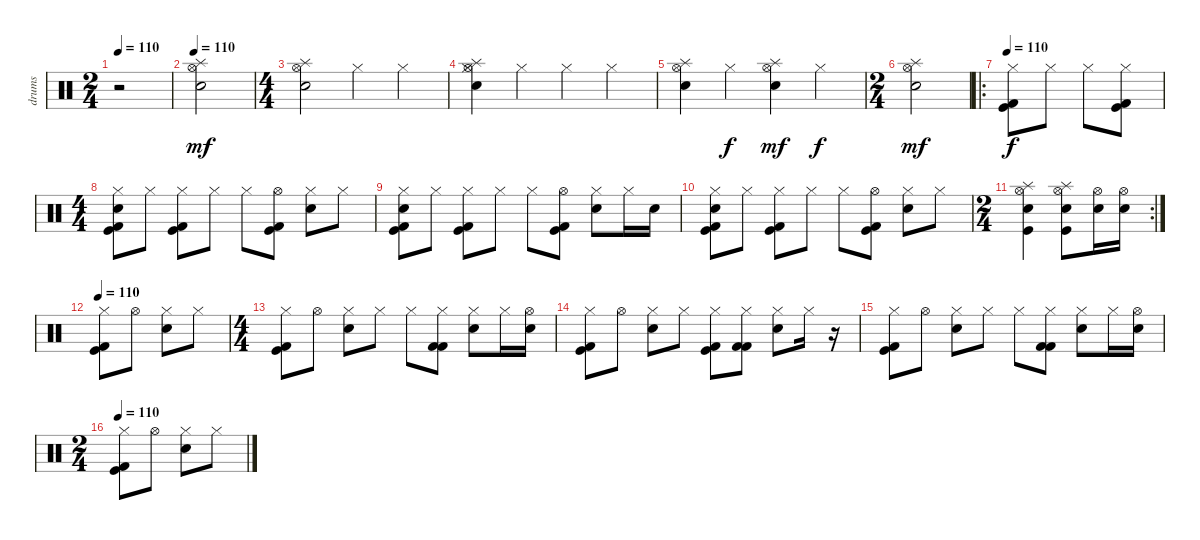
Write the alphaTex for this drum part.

\track ("drums" "drums") {instrument percussion}
\staff {score}
\articulation defaults
\ts (2 4)
\tempo 110
\clef neutral
\ks c
r.2{dy f} |
\tempo 110
("Splash (hit)" "Hi-Hat (open)" "Electric Snare (hit)").2{dy mf} |
\ts (4 4)
("Splash (hit)" "Hi-Hat (open)" "Electric Snare (hit)").2 "Hi-Hat (closed)".4 "Hi-Hat (closed)".4 |
("Hi-Hat (closed)" "Splash (hit)" "Hi-Hat (open)" "Electric Snare (hit)").4 "Hi-Hat (closed)".4 "Hi-Hat (closed)".4 "Hi-Hat (closed)".4 |
("Splash (hit)" "Hi-Hat (open)" "Electric Snare (hit)").4 "Hi-Hat (closed)".4{dy f} ("Splash (hit)" "Hi-Hat (open)" "Electric Snare (hit)").4{dy mf} "Hi-Hat (closed)".4{dy f} |
\ts (2 4)
("Splash (hit)" "Hi-Hat (open)" "Electric Snare (hit)").2{dy mf} |
\ro
\tempo 110
("Hi-Hat (closed)" "Kick (hit) 2" "Kick (hit)").8{dy f} "Hi-Hat (closed)".8 "Hi-Hat (closed)".8 ("Hi-Hat (closed)" "Kick (hit) 2" "Kick (hit)").8 |
\ts (4 4)
("Hi-Hat (closed)" "Electric Snare (hit)" "Kick (hit) 2" "Kick (hit)").8 "Hi-Hat (closed)".8 ("Hi-Hat (closed)" "Kick (hit) 2" "Kick (hit)").8 "Hi-Hat (closed)".8 "Hi-Hat (closed)".8 ("Hi-Hat (open)" "Kick (hit) 2" "Kick (hit)").8 ("Hi-Hat (closed)" "Electric Snare (hit)").8 "Hi-Hat (closed)".8 |
("Hi-Hat (closed)" "Electric Snare (hit)" "Kick (hit) 2" "Kick (hit)").8 "Hi-Hat (closed)".8 ("Hi-Hat (closed)" "Kick (hit) 2" "Kick (hit)").8 "Hi-Hat (closed)".8 "Hi-Hat (closed)".8 ("Hi-Hat (open)" "Kick (hit) 2" "Kick (hit)").8 ("Hi-Hat (closed)" "Electric Snare (hit)").8 "Hi-Hat (closed)".16 "Electric Snare (hit)".16 |
("Hi-Hat (closed)" "Electric Snare (hit)" "Kick (hit) 2" "Kick (hit)").8 "Hi-Hat (closed)".8 ("Hi-Hat (closed)" "Kick (hit) 2" "Kick (hit)").8 "Hi-Hat (closed)".8 "Hi-Hat (closed)".8 ("Hi-Hat (open)" "Kick (hit) 2" "Kick (hit)").8 ("Hi-Hat (closed)" "Electric Snare (hit)").8 "Hi-Hat (closed)".8 |
\rc 2
\ts (2 4)
("Electric Snare (hit)" "Hi-Hat (open)" "Splash (hit)" "Kick (hit)").4 ("Electric Snare (hit)" "Hi-Hat (open)" "Splash (hit)" "Kick (hit)").8 ("Electric Snare (hit)" "Hi-Hat (open)").16 ("Electric Snare (hit)" "Hi-Hat (open)").16 |
\tempo 110
("Hi-Hat (closed)" "Kick (hit) 2" "Kick (hit)").8 "Hi-Hat (open)".8 ("Hi-Hat (closed)" "Electric Snare (hit)").8 "Hi-Hat (closed)".8 |
\ts (4 4)
("Hi-Hat (closed)" "Kick (hit) 2" "Kick (hit)").8 "Hi-Hat (open)".8 ("Hi-Hat (closed)" "Electric Snare (hit)").8 "Hi-Hat (closed)".8 "Hi-Hat (closed)".8 ("Hi-Hat (closed)" "Kick (hit) 2" "Kick (hit) 2").8 ("Hi-Hat (closed)" "Electric Snare (hit)").8 "Hi-Hat (closed)".16 ("Hi-Hat (open)" "Electric Snare (hit)").16 |
("Hi-Hat (closed)" "Kick (hit) 2" "Kick (hit)").8 "Hi-Hat (open)".8 ("Hi-Hat (closed)" "Electric Snare (hit)").8 "Hi-Hat (closed)".8 ("Hi-Hat (closed)" "Kick (hit) 2" "Kick (hit)").8 ("Hi-Hat (closed)" "Kick (hit) 2" "Kick (hit) 2").8 ("Hi-Hat (closed)" "Electric Snare (hit)").8 "Hi-Hat (closed)".16 r.16 |
("Hi-Hat (closed)" "Kick (hit) 2" "Kick (hit)").8 "Hi-Hat (open)".8 ("Hi-Hat (closed)" "Electric Snare (hit)").8 "Hi-Hat (closed)".8 "Hi-Hat (closed)".8 ("Hi-Hat (closed)" "Kick (hit) 2" "Kick (hit) 2").8 ("Hi-Hat (closed)" "Electric Snare (hit)").8 "Hi-Hat (closed)".16 ("Hi-Hat (open)" "Electric Snare (hit)").16 |
\ts (2 4)
\tempo 110
("Hi-Hat (closed)" "Kick (hit) 2" "Kick (hit)").8 "Hi-Hat (open)".8 ("Hi-Hat (closed)" "Electric Snare (hit)").8 "Hi-Hat (closed)".8
